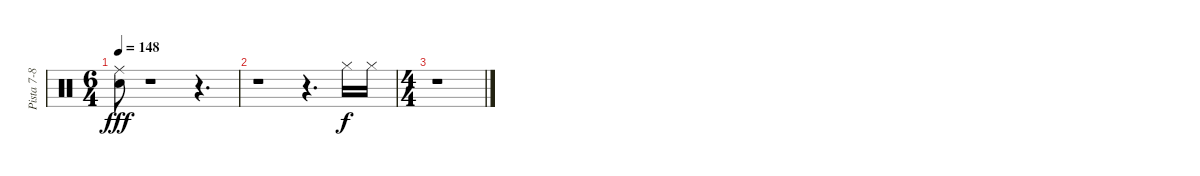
\track ("Pista 7-8" "Pista 7-8") {instrument percussion}
\staff {score}
\articulation defaults
\ts (6 4)
\tempo 148
\clef neutral
\ks c
("Snare (hit) 2" "Ride (middle)").8{dy fff} r.1 r.4{d} |
r.1 r.4{d} "Hi-Hat (closed)".16{dy f} "Hi-Hat (closed)".16 |
\ts (4 4)
r.1
